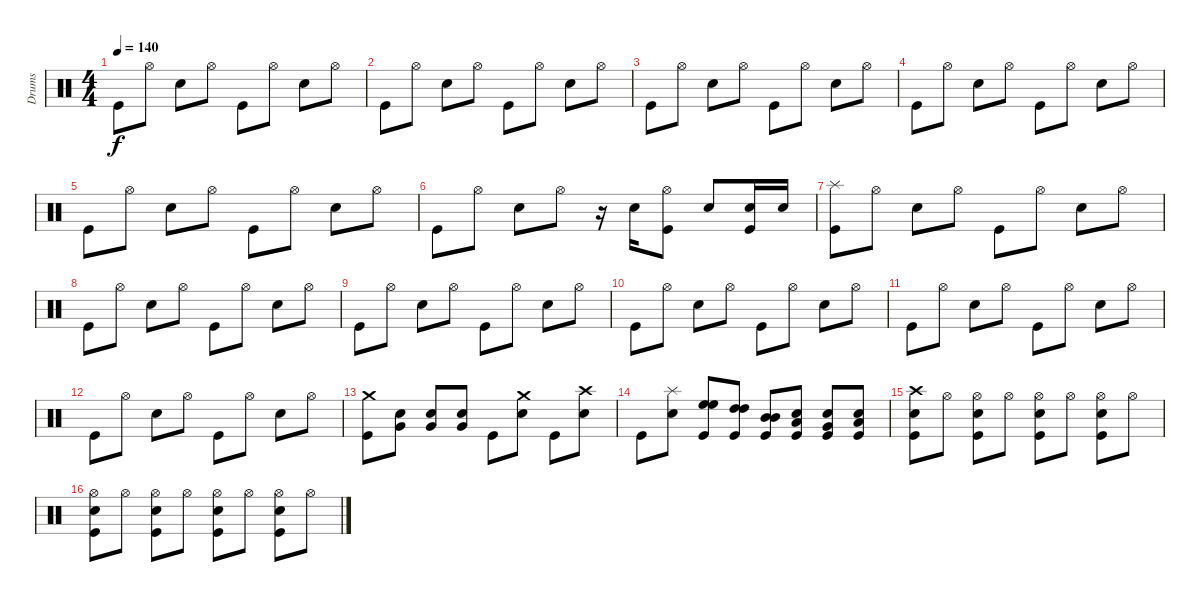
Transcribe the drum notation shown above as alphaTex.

\track ("Drums" "Drums") {instrument percussion}
\staff {score}
\articulation defaults
\ts (4 4)
\tempo 140
\clef neutral
\ks c "Kick (hit)".8{dy f} "Hi-Hat (open)".8 "Snare (hit) 2".8 "Hi-Hat (open)".8 "Kick (hit)".8 "Hi-Hat (open)".8 "Snare (hit) 2".8 "Hi-Hat (open)".8
|
"Kick (hit)".8 "Hi-Hat (open)".8 "Snare (hit) 2".8 "Hi-Hat (open)".8 "Kick (hit)".8 "Hi-Hat (open)".8 "Snare (hit) 2".8 "Hi-Hat (open)".8 |
"Kick (hit)".8 "Hi-Hat (open)".8 "Snare (hit) 2".8 "Hi-Hat (open)".8 "Kick (hit)".8 "Hi-Hat (open)".8 "Snare (hit) 2".8 "Hi-Hat (open)".8 |
"Kick (hit)".8 "Hi-Hat (open)".8 "Snare (hit) 2".8 "Hi-Hat (open)".8 "Kick (hit)".8 "Hi-Hat (open)".8 "Snare (hit) 2".8 "Hi-Hat (open)".8 |
"Kick (hit)".8 "Hi-Hat (open)".8 "Snare (hit) 2".8 "Hi-Hat (open)".8 "Kick (hit)".8 "Hi-Hat (open)".8 "Snare (hit) 2".8 "Hi-Hat (open)".8 |
"Kick (hit)".8 "Hi-Hat (open)".8 "Snare (hit) 2".8 "Hi-Hat (open)".8 r.16 "Snare (hit) 2".16 ("Hi-Hat (open)" "Kick (hit)").8 "Snare (hit) 2".8 ("Snare (hit) 2" "Kick (hit)").16 "Snare (hit) 2".16 |
("Splash (hit)" "Kick (hit)").8 "Hi-Hat (open)".8 "Snare (hit) 2".8 "Hi-Hat (open)".8 "Kick (hit)".8 "Hi-Hat (open)".8 "Snare (hit) 2".8 "Hi-Hat (open)".8 |
"Kick (hit)".8 "Hi-Hat (open)".8 "Snare (hit) 2".8 "Hi-Hat (open)".8 "Kick (hit)".8 "Hi-Hat (open)".8 "Snare (hit) 2".8 "Hi-Hat (open)".8 |
"Kick (hit)".8 "Hi-Hat (open)".8 "Snare (hit) 2".8 "Hi-Hat (open)".8 "Kick (hit)".8 "Hi-Hat (open)".8 "Snare (hit) 2".8 "Hi-Hat (open)".8 |
"Kick (hit)".8 "Hi-Hat (open)".8 "Snare (hit) 2".8 "Hi-Hat (open)".8 "Kick (hit)".8 "Hi-Hat (open)".8 "Snare (hit) 2".8 "Hi-Hat (open)".8 |
"Kick (hit)".8 "Hi-Hat (open)".8 "Snare (hit) 2".8 "Hi-Hat (open)".8 "Kick (hit)".8 "Hi-Hat (open)".8 "Snare (hit) 2".8 "Hi-Hat (open)".8 |
"Kick (hit)".8 "Hi-Hat (open)".8 "Snare (hit) 2".8 "Hi-Hat (open)".8 "Kick (hit)".8 "Hi-Hat (open)".8 "Snare (hit) 2".8 "Hi-Hat (open)".8 |
("Crash medium (hit)" "Kick (hit)").8 ("Snare (hit) 2" "Very Low Tom (hit)").8 ("Snare (hit) 2" "Very Low Tom (hit)").8 ("Snare (hit) 2" "Very Low Tom (hit)").8 "Kick (hit)".8 ("Crash medium (hit)" "Snare (hit) 2").8 "Kick (hit)".8 ("Crash high (hit)" "Snare (hit) 2").8 |
"Kick (hit)".8 ("Splash (hit)" "Snare (hit) 2").8 ("High Floor Tom (hit)" "High Floor Tom (hit)" "Kick (hit)").8 ("High Tom (hit)" "High Tom (hit)" "Kick (hit)").8 ("Mid Tom (hit)" "Mid Tom (hit)" "Kick (hit)").8 ("Low Tom (hit)" "Snare (hit) 2" "Kick (hit)").8 ("Very Low Tom (hit)" "Snare (hit) 2" "Kick (hit)").8 ("Low Floor Tom (hit)" "Snare (hit) 2" "Kick (hit)").8 |
("Crash high (hit)" "Snare (hit) 2" "Kick (hit)").8 "Hi-Hat (open)".8 ("Hi-Hat (open)" "Snare (hit) 2" "Kick (hit)").8 "Hi-Hat (open)".8 ("Hi-Hat (open)" "Snare (hit) 2" "Kick (hit)").8 "Hi-Hat (open)".8 ("Hi-Hat (open)" "Snare (hit) 2" "Kick (hit)").8 "Hi-Hat (open)".8 |
("Hi-Hat (open)" "Snare (hit) 2" "Kick (hit)").8 "Hi-Hat (open)".8 ("Hi-Hat (open)" "Snare (hit) 2" "Kick (hit)").8 "Hi-Hat (open)".8 ("Hi-Hat (open)" "Snare (hit) 2" "Kick (hit)").8 "Hi-Hat (open)".8 ("Hi-Hat (open)" "Snare (hit) 2" "Kick (hit)").8 "Hi-Hat (open)".8
